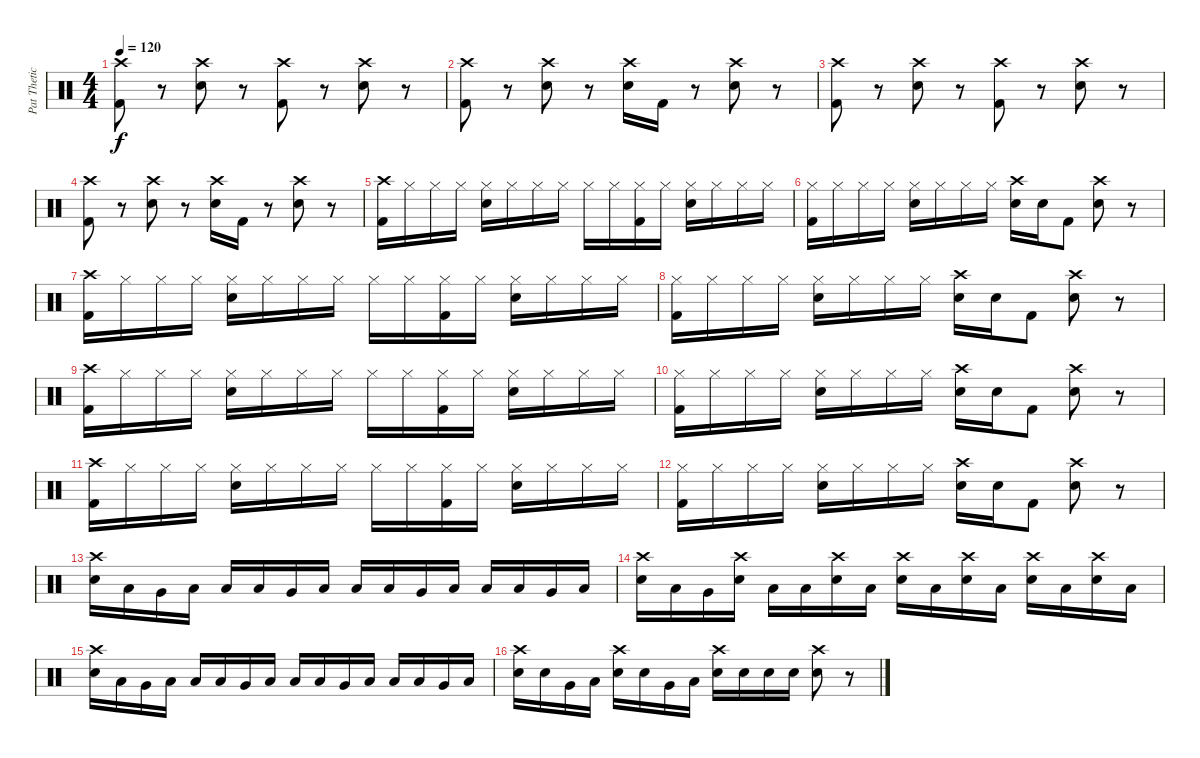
\track ("Pat Thetic" "Pat Thetic") {instrument percussion}
\staff {score}
\articulation defaults
\ts (4 4)
\tempo 120
\clef neutral
\ks c
("Crash high (hit)" "Kick (hit) 2").8{dy f} r.8 ("Crash high (hit)" "Electric Snare (hit)").8 r.8 ("Crash high (hit)" "Kick (hit) 2").8 r.8 ("Crash high (hit)" "Electric Snare (hit)").8 r.8 |
("Crash high (hit)" "Kick (hit) 2").8 r.8 ("Crash high (hit)" "Electric Snare (hit)").8 r.8 ("Crash high (hit)" "Electric Snare (hit)").16 "Kick (hit) 2".16 r.8 ("Crash high (hit)" "Electric Snare (hit)").8 r.8 |
("Crash high (hit)" "Kick (hit) 2").8 r.8 ("Crash high (hit)" "Electric Snare (hit)").8 r.8 ("Crash high (hit)" "Kick (hit) 2").8 r.8 ("Crash high (hit)" "Electric Snare (hit)").8 r.8 |
("Crash high (hit)" "Kick (hit) 2").8 r.8 ("Crash high (hit)" "Electric Snare (hit)").8 r.8 ("Crash high (hit)" "Electric Snare (hit)").16 "Kick (hit) 2".16 r.8 ("Crash high (hit)" "Electric Snare (hit)").8 r.8 |
("Crash high (hit)" "Kick (hit) 2").16 "Hi-Hat (closed)".16 "Hi-Hat (closed)".16 "Hi-Hat (closed)".16 ("Hi-Hat (closed)" "Electric Snare (hit)").16 "Hi-Hat (closed)".16 "Hi-Hat (closed)".16 "Hi-Hat (closed)".16 "Hi-Hat (closed)".16 "Hi-Hat (closed)".16 ("Hi-Hat (closed)" "Kick (hit) 2").16 "Hi-Hat (closed)".16 ("Hi-Hat (closed)" "Electric Snare (hit)").16 "Hi-Hat (closed)".16 "Hi-Hat (closed)".16 "Hi-Hat (closed)".16 |
("Hi-Hat (closed)" "Kick (hit) 2").16 "Hi-Hat (closed)".16 "Hi-Hat (closed)".16 "Hi-Hat (closed)".16 ("Hi-Hat (closed)" "Electric Snare (hit)").16 "Hi-Hat (closed)".16 "Hi-Hat (closed)".16 "Hi-Hat (closed)".16 ("Crash high (hit)" "Electric Snare (hit)").16 "Electric Snare (hit)".16 "Kick (hit) 2".8 ("Crash high (hit)" "Electric Snare (hit)").8 r.8 |
("Crash high (hit)" "Kick (hit) 2").16 "Hi-Hat (closed)".16 "Hi-Hat (closed)".16 "Hi-Hat (closed)".16 ("Hi-Hat (closed)" "Electric Snare (hit)").16 "Hi-Hat (closed)".16 "Hi-Hat (closed)".16 "Hi-Hat (closed)".16 "Hi-Hat (closed)".16 "Hi-Hat (closed)".16 ("Hi-Hat (closed)" "Kick (hit) 2").16 "Hi-Hat (closed)".16 ("Hi-Hat (closed)" "Electric Snare (hit)").16 "Hi-Hat (closed)".16 "Hi-Hat (closed)".16 "Hi-Hat (closed)".16 |
("Hi-Hat (closed)" "Kick (hit) 2").16 "Hi-Hat (closed)".16 "Hi-Hat (closed)".16 "Hi-Hat (closed)".16 ("Hi-Hat (closed)" "Electric Snare (hit)").16 "Hi-Hat (closed)".16 "Hi-Hat (closed)".16 "Hi-Hat (closed)".16 ("Crash high (hit)" "Electric Snare (hit)").16 "Electric Snare (hit)".16 "Kick (hit) 2".8 ("Crash high (hit)" "Electric Snare (hit)").8 r.8 |
("Crash high (hit)" "Kick (hit) 2").16 "Hi-Hat (closed)".16 "Hi-Hat (closed)".16 "Hi-Hat (closed)".16 ("Hi-Hat (closed)" "Electric Snare (hit)").16 "Hi-Hat (closed)".16 "Hi-Hat (closed)".16 "Hi-Hat (closed)".16 "Hi-Hat (closed)".16 "Hi-Hat (closed)".16 ("Hi-Hat (closed)" "Kick (hit) 2").16 "Hi-Hat (closed)".16 ("Hi-Hat (closed)" "Electric Snare (hit)").16 "Hi-Hat (closed)".16 "Hi-Hat (closed)".16 "Hi-Hat (closed)".16 |
("Hi-Hat (closed)" "Kick (hit) 2").16 "Hi-Hat (closed)".16 "Hi-Hat (closed)".16 "Hi-Hat (closed)".16 ("Hi-Hat (closed)" "Electric Snare (hit)").16 "Hi-Hat (closed)".16 "Hi-Hat (closed)".16 "Hi-Hat (closed)".16 ("Crash high (hit)" "Electric Snare (hit)").16 "Electric Snare (hit)".16 "Kick (hit) 2".8 ("Crash high (hit)" "Electric Snare (hit)").8 r.8 |
("Crash high (hit)" "Kick (hit) 2").16 "Hi-Hat (closed)".16 "Hi-Hat (closed)".16 "Hi-Hat (closed)".16 ("Hi-Hat (closed)" "Electric Snare (hit)").16 "Hi-Hat (closed)".16 "Hi-Hat (closed)".16 "Hi-Hat (closed)".16 "Hi-Hat (closed)".16 "Hi-Hat (closed)".16 ("Hi-Hat (closed)" "Kick (hit) 2").16 "Hi-Hat (closed)".16 ("Hi-Hat (closed)" "Electric Snare (hit)").16 "Hi-Hat (closed)".16 "Hi-Hat (closed)".16 "Hi-Hat (closed)".16 |
("Hi-Hat (closed)" "Kick (hit) 2").16 "Hi-Hat (closed)".16 "Hi-Hat (closed)".16 "Hi-Hat (closed)".16 ("Hi-Hat (closed)" "Electric Snare (hit)").16 "Hi-Hat (closed)".16 "Hi-Hat (closed)".16 "Hi-Hat (closed)".16 ("Crash high (hit)" "Electric Snare (hit)").16 "Electric Snare (hit)".16 "Kick (hit) 2".8 ("Crash high (hit)" "Electric Snare (hit)").8 r.8 |
("Crash high (hit)" "Electric Snare (hit)").16 "Low Floor Tom (hit)".16 "Very Low Tom (hit)".16 "Low Floor Tom (hit)".16 "Low Floor Tom (hit)".16 "Low Floor Tom (hit)".16 "Very Low Tom (hit)".16 "Low Floor Tom (hit)".16 "Low Floor Tom (hit)".16 "Low Floor Tom (hit)".16 "Very Low Tom (hit)".16 "Low Floor Tom (hit)".16 "Low Floor Tom (hit)".16 "Low Floor Tom (hit)".16 "Very Low Tom (hit)".16 "Low Floor Tom (hit)".16 |
("Crash high (hit)" "Electric Snare (hit)").16 "Low Floor Tom (hit)".16 "Very Low Tom (hit)".16 ("Crash high (hit)" "Electric Snare (hit)").16 "Low Floor Tom (hit)".16 "Low Floor Tom (hit)".16 ("Crash high (hit)" "Electric Snare (hit)").16 "Low Floor Tom (hit)".16 ("Crash high (hit)" "Electric Snare (hit)").16 "Low Floor Tom (hit)".16 ("Crash high (hit)" "Electric Snare (hit)").16 "Low Floor Tom (hit)".16 ("Crash high (hit)" "Electric Snare (hit)").16 "Low Floor Tom (hit)".16 ("Crash high (hit)" "Electric Snare (hit)").16 "Low Floor Tom (hit)".16 |
("Crash high (hit)" "Electric Snare (hit)").16 "Low Floor Tom (hit)".16 "Very Low Tom (hit)".16 "Low Floor Tom (hit)".16 "Low Floor Tom (hit)".16 "Low Floor Tom (hit)".16 "Very Low Tom (hit)".16 "Low Floor Tom (hit)".16 "Low Floor Tom (hit)".16 "Low Floor Tom (hit)".16 "Very Low Tom (hit)".16 "Low Floor Tom (hit)".16 "Low Floor Tom (hit)".16 "Low Floor Tom (hit)".16 "Very Low Tom (hit)".16 "Low Floor Tom (hit)".16 |
("Crash high (hit)" "Electric Snare (hit)").16 "Electric Snare (hit)".16 "Very Low Tom (hit)".16 "Low Floor Tom (hit)".16 ("Crash high (hit)" "Electric Snare (hit)").16 "Electric Snare (hit)".16 "Very Low Tom (hit)".16 "Low Floor Tom (hit)".16 ("Crash high (hit)" "Electric Snare (hit)").16 "Electric Snare (hit)".16 "Electric Snare (hit)".16 "Electric Snare (hit)".16 ("Crash high (hit)" "Electric Snare (hit)").8 r.8
